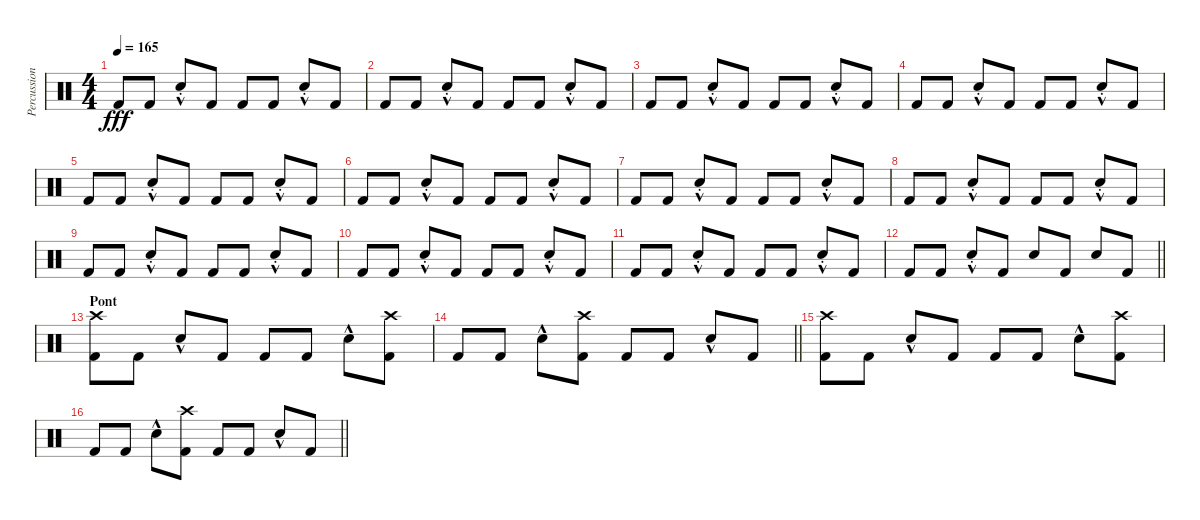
\track ("Percussions" "Percussion") {instrument percussion}
\staff {score}
\articulation defaults
\ts (4 4)
\tempo 165
\clef neutral
\ks c "Kick (hit) 2".8{dy fff} "Kick (hit) 2".8 "Electric Snare (hit)"{hac st}.8 "Kick (hit) 2".8 "Kick (hit) 2".8 "Kick (hit) 2".8 "Electric Snare (hit)"{hac st}.8 "Kick (hit) 2".8
|
"Kick (hit) 2".8 "Kick (hit) 2".8 "Electric Snare (hit)"{hac st}.8 "Kick (hit) 2".8 "Kick (hit) 2".8 "Kick (hit) 2".8 "Electric Snare (hit)"{hac st}.8 "Kick (hit) 2".8 |
"Kick (hit) 2".8 "Kick (hit) 2".8 "Electric Snare (hit)"{hac st}.8 "Kick (hit) 2".8 "Kick (hit) 2".8 "Kick (hit) 2".8 "Electric Snare (hit)"{hac st}.8 "Kick (hit) 2".8 |
"Kick (hit) 2".8 "Kick (hit) 2".8 "Electric Snare (hit)"{hac st}.8 "Kick (hit) 2".8 "Kick (hit) 2".8 "Kick (hit) 2".8 "Electric Snare (hit)"{hac st}.8 "Kick (hit) 2".8 |
"Kick (hit) 2".8 "Kick (hit) 2".8 "Electric Snare (hit)"{hac st}.8 "Kick (hit) 2".8 "Kick (hit) 2".8 "Kick (hit) 2".8 "Electric Snare (hit)"{hac st}.8 "Kick (hit) 2".8 |
"Kick (hit) 2".8 "Kick (hit) 2".8 "Electric Snare (hit)"{hac st}.8 "Kick (hit) 2".8 "Kick (hit) 2".8 "Kick (hit) 2".8 "Electric Snare (hit)"{hac st}.8 "Kick (hit) 2".8 |
"Kick (hit) 2".8 "Kick (hit) 2".8 "Electric Snare (hit)"{hac st}.8 "Kick (hit) 2".8 "Kick (hit) 2".8 "Kick (hit) 2".8 "Electric Snare (hit)"{hac st}.8 "Kick (hit) 2".8 |
"Kick (hit) 2".8 "Kick (hit) 2".8 "Electric Snare (hit)"{hac st}.8 "Kick (hit) 2".8 "Kick (hit) 2".8 "Kick (hit) 2".8 "Electric Snare (hit)"{hac st}.8 "Kick (hit) 2".8 |
"Kick (hit) 2".8 "Kick (hit) 2".8 "Electric Snare (hit)"{hac st}.8 "Kick (hit) 2".8 "Kick (hit) 2".8 "Kick (hit) 2".8 "Electric Snare (hit)"{hac st}.8 "Kick (hit) 2".8 |
"Kick (hit) 2".8 "Kick (hit) 2".8 "Electric Snare (hit)"{hac st}.8 "Kick (hit) 2".8 "Kick (hit) 2".8 "Kick (hit) 2".8 "Electric Snare (hit)"{hac st}.8 "Kick (hit) 2".8 |
"Kick (hit) 2".8 "Kick (hit) 2".8 "Electric Snare (hit)"{hac st}.8 "Kick (hit) 2".8 "Kick (hit) 2".8 "Kick (hit) 2".8 "Electric Snare (hit)"{hac st}.8 "Kick (hit) 2".8 |
\barLineRight lightlight "Kick (hit) 2".8 "Kick (hit) 2".8 "Electric Snare (hit)"{hac st}.8 "Kick (hit) 2".8 "Electric Snare (hit)".8 "Kick (hit) 2".8 "Electric Snare (hit)".8 "Kick (hit) 2".8
|
\section ("" "Pont")
("Crash high (hit)" "Kick (hit) 2").8 "Kick (hit) 2".8 "Snare (hit) 2"{hac}.8 "Kick (hit) 2".8 "Kick (hit) 2".8 "Kick (hit) 2".8 "Snare (hit) 2"{hac}.8 ("Crash high (hit)" "Kick (hit) 2").8 |
\barLineRight lightlight "Kick (hit) 2".8 "Kick (hit) 2".8 "Snare (hit) 2"{hac}.8
("Crash high (hit)" "Kick (hit) 2").8 "Kick (hit) 2".8 "Kick (hit) 2".8 "Snare (hit) 2"{hac}.8 "Kick (hit) 2".8 |
("Crash high (hit)" "Kick (hit) 2").8 "Kick (hit) 2".8 "Snare (hit) 2"{hac}.8 "Kick (hit) 2".8 "Kick (hit) 2".8 "Kick (hit) 2".8 "Snare (hit) 2"{hac}.8 ("Crash high (hit)" "Kick (hit) 2").8 |
\barLineRight lightlight "Kick (hit) 2".8 "Kick (hit) 2".8 "Snare (hit) 2"{hac}.8
("Crash high (hit)" "Kick (hit) 2").8 "Kick (hit) 2".8 "Kick (hit) 2".8 "Snare (hit) 2"{hac}.8 "Kick (hit) 2".8
